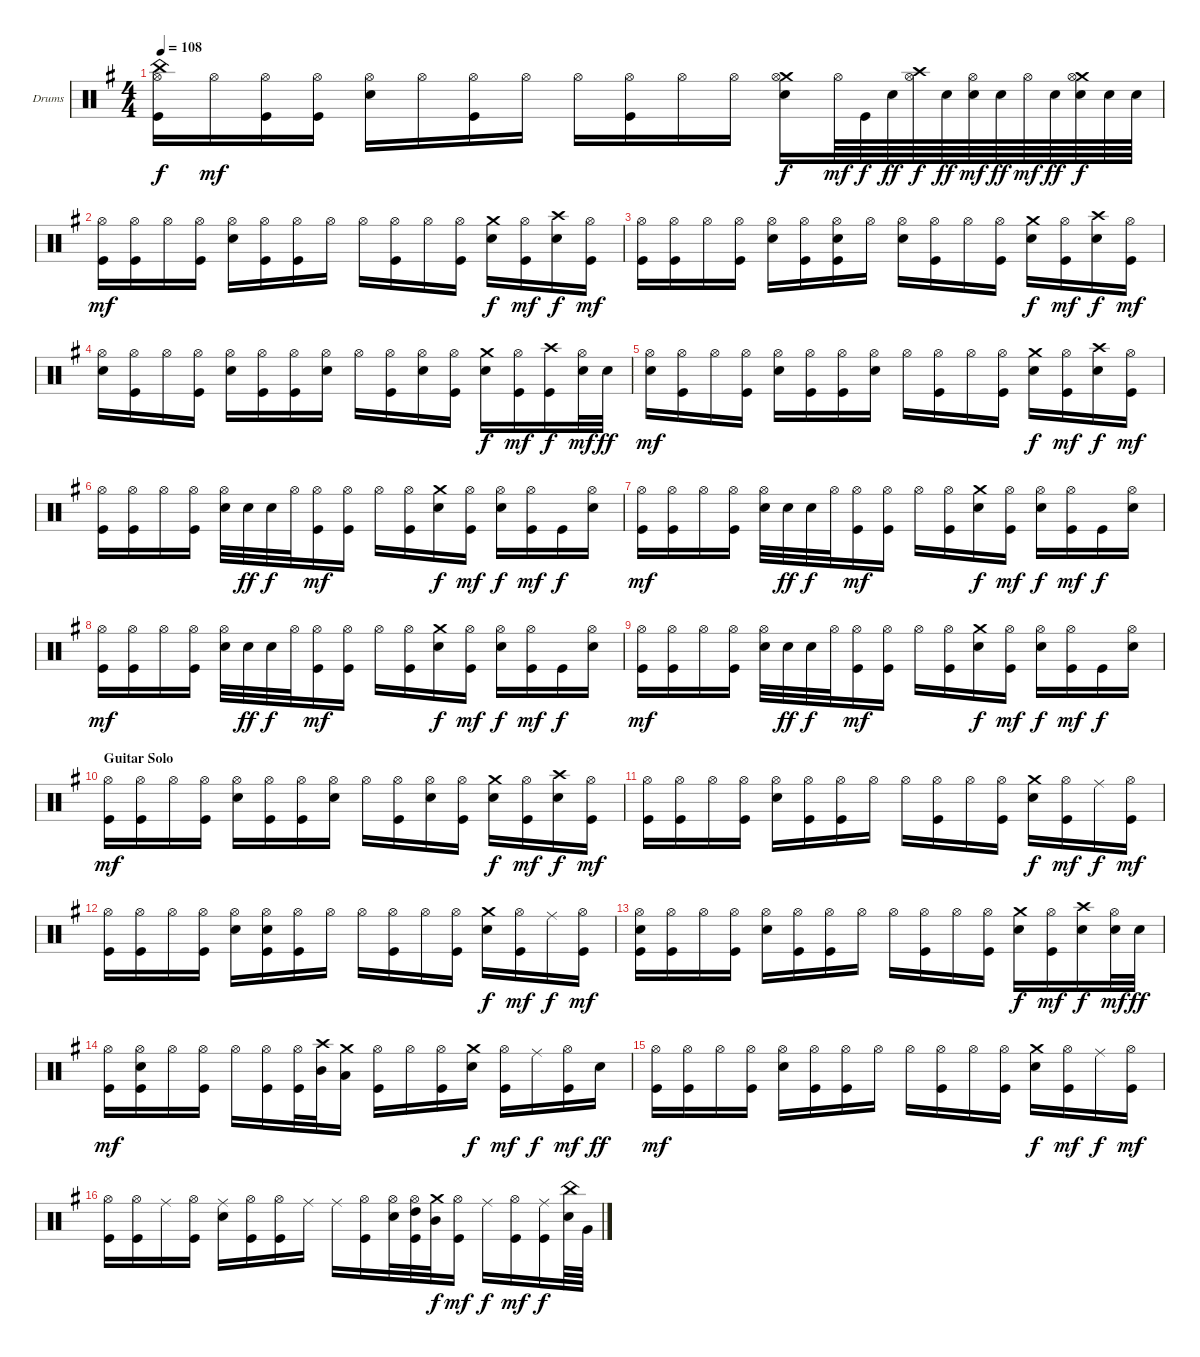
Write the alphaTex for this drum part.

\defaultSystemsLayout 4
\bracketExtendMode groupsimilarinstruments
\firstSystemTrackNameOrientation horizontal
\otherSystemsTrackNameOrientation horizontal
\track ("Drum" "Drums") {instrument percussion}
\staff {score}
\articulation defaults
\ts (4 4)
\tempo 108
\clef neutral
\scale
1.04288
\ks g
("China (hit)" "Hi-Hat (open)" "Kick (hit)").16{dy f} "Hi-Hat (open)".16{dy mf} ("Hi-Hat (open)" "Kick (hit)").16 ("Hi-Hat (open)" "Kick (hit)").16 ("Hi-Hat (open)" "Snare (hit) 2").16 "Hi-Hat (open)".16 ("Hi-Hat (open)" "Kick (hit)").16 "Hi-Hat (open)".16 "Hi-Hat (open)".16 ("Hi-Hat (open)" "Kick (hit)").16 "Hi-Hat (open)".16 "Hi-Hat (open)".16 ("Crash medium (hit)" "Hi-Hat (open)" "Snare (hit) 2").16{dy f} "Hi-Hat (open)".64{dy mf} "Kick (hit)".64{dy f} "Snare (hit) 2".64{dy ff} ("Crash high (hit)" "Hi-Hat (open)").64{dy f} "Snare (hit) 2".64{dy ff} ("Hi-Hat (open)" "Snare (hit) 2").64{dy mf} "Snare (hit) 2".64{dy ff} "Hi-Hat (open)".64{dy mf} "Snare (hit) 2".64{dy ff} ("Crash medium (hit)" "Hi-Hat (open)" "Snare (hit) 2").64{dy f} "Snare (hit) 2".64 "Snare (hit) 2".64 |
\scale
0.957125 ("Hi-Hat (open)" "Kick (hit)").16{dy mf} ("Hi-Hat (open)" "Kick (hit)").16 "Hi-Hat (open)".16 ("Hi-Hat (open)" "Kick (hit)").16 ("Hi-Hat (open)" "Snare (hit) 2").16 ("Hi-Hat (open)" "Kick (hit)").16 ("Hi-Hat (open)" "Kick (hit)").16 "Hi-Hat (open)".16 "Hi-Hat (open)".16 ("Hi-Hat (open)" "Kick (hit)").16 "Hi-Hat (open)".16 ("Hi-Hat (open)" "Kick (hit)").16 ("Crash medium (hit)" "Snare (hit) 2").16{dy f} ("Hi-Hat (open)" "Kick (hit)").16{dy mf} ("Crash high (hit)" "Snare (hit) 2").16{dy f} ("Hi-Hat (open)" "Kick (hit)").16{dy mf} |
\scale
1.04288 ("Hi-Hat (open)" "Kick (hit)").16 ("Hi-Hat (open)" "Kick (hit)").16 "Hi-Hat (open)".16 ("Hi-Hat (open)" "Kick (hit)").16 ("Hi-Hat (open)" "Snare (hit) 2").16 ("Hi-Hat (open)" "Kick (hit)").16 ("Hi-Hat (open)" "Snare (hit) 2" "Kick (hit)").16 "Hi-Hat (open)".16 ("Hi-Hat (open)" "Snare (hit) 2").16 ("Hi-Hat (open)" "Kick (hit)").16 "Hi-Hat (open)".16 ("Hi-Hat (open)" "Kick (hit)").16 ("Crash medium (hit)" "Snare (hit) 2").16{dy f} ("Hi-Hat (open)" "Kick (hit)").16{dy mf} ("Crash high (hit)" "Snare (hit) 2").16{dy f} ("Hi-Hat (open)" "Kick (hit)").16{dy mf} |
\scale
0.957125 ("Hi-Hat (open)" "Snare (hit) 2").16 ("Hi-Hat (open)" "Kick (hit)").16 "Hi-Hat (open)".16 ("Hi-Hat (open)" "Kick (hit)").16 ("Hi-Hat (open)" "Snare (hit) 2").16 ("Hi-Hat (open)" "Kick (hit)").16 ("Hi-Hat (open)" "Kick (hit)").16 ("Hi-Hat (open)" "Snare (hit) 2").16 "Hi-Hat (open)".16 ("Hi-Hat (open)" "Kick (hit)").16 ("Hi-Hat (open)" "Snare (hit) 2").16 ("Hi-Hat (open)" "Kick (hit)").16 ("Crash medium (hit)" "Snare (hit) 2").16{dy f} ("Hi-Hat (open)" "Kick (hit)").16{dy mf} ("Crash high (hit)" "Kick (hit)").16{dy f} ("Hi-Hat (open)" "Snare (hit) 2").32{dy mf} "Snare (hit) 2".32{dy ff} |
\scale
1.04288 ("Hi-Hat (open)" "Snare (hit) 2").16{dy mf} ("Hi-Hat (open)" "Kick (hit)").16 "Hi-Hat (open)".16 ("Hi-Hat (open)" "Kick (hit)").16 ("Hi-Hat (open)" "Snare (hit) 2").16 ("Hi-Hat (open)" "Kick (hit)").16 ("Hi-Hat (open)" "Kick (hit)").16 ("Hi-Hat (open)" "Snare (hit) 2").16 "Hi-Hat (open)".16 ("Hi-Hat (open)" "Kick (hit)").16 "Hi-Hat (open)".16 ("Hi-Hat (open)" "Kick (hit)").16 ("Crash medium (hit)" "Snare (hit) 2").16{dy f} ("Hi-Hat (open)" "Kick (hit)").16{dy mf} ("Crash high (hit)" "Snare (hit) 2").16{dy f} ("Hi-Hat (open)" "Kick (hit)").16{dy mf} |
\scale
0.957125 ("Hi-Hat (open)" "Kick (hit)").16 ("Hi-Hat (open)" "Kick (hit)").16 "Hi-Hat (open)".16 ("Hi-Hat (open)" "Kick (hit)").16 ("Hi-Hat (open)" "Snare (hit) 2").32 "Snare (hit) 2".32{dy ff} "Snare (hit) 2".32{dy f} "Hi-Hat (open)".32 ("Hi-Hat (open)" "Kick (hit)").16{dy mf} ("Hi-Hat (open)" "Kick (hit)").16 "Hi-Hat (open)".16 ("Hi-Hat (open)" "Kick (hit)").16 ("Crash medium (hit)" "Snare (hit) 2").16{dy f} ("Hi-Hat (open)" "Kick (hit)").16{dy mf} ("Hi-Hat (open)" "Snare (hit) 2").16{dy f} ("Hi-Hat (open)" "Kick (hit)").16{dy mf} "Kick (hit)".16{dy f} ("Hi-Hat (open)" "Snare (hit) 2").16 |
\scale
1.04288 ("Hi-Hat (open)" "Kick (hit)").16{dy mf} ("Hi-Hat (open)" "Kick (hit)").16 "Hi-Hat (open)".16 ("Hi-Hat (open)" "Kick (hit)").16 ("Hi-Hat (open)" "Snare (hit) 2").32 "Snare (hit) 2".32{dy ff} "Snare (hit) 2".32{dy f} "Hi-Hat (open)".32 ("Hi-Hat (open)" "Kick (hit)").16{dy mf} ("Hi-Hat (open)" "Kick (hit)").16 "Hi-Hat (open)".16 ("Hi-Hat (open)" "Kick (hit)").16 ("Crash medium (hit)" "Snare (hit) 2").16{dy f} ("Hi-Hat (open)" "Kick (hit)").16{dy mf} ("Hi-Hat (open)" "Snare (hit) 2").16{dy f} ("Hi-Hat (open)" "Kick (hit)").16{dy mf} "Kick (hit)".16{dy f} ("Hi-Hat (open)" "Snare (hit) 2").16 |
\scale
0.957125 ("Hi-Hat (open)" "Kick (hit)").16{dy mf} ("Hi-Hat (open)" "Kick (hit)").16 "Hi-Hat (open)".16 ("Hi-Hat (open)" "Kick (hit)").16 ("Hi-Hat (open)" "Snare (hit) 2").32 "Snare (hit) 2".32{dy ff} "Snare (hit) 2".32{dy f} "Hi-Hat (open)".32 ("Hi-Hat (open)" "Kick (hit)").16{dy mf} ("Hi-Hat (open)" "Kick (hit)").16 "Hi-Hat (open)".16 ("Hi-Hat (open)" "Kick (hit)").16 ("Crash medium (hit)" "Snare (hit) 2").16{dy f} ("Hi-Hat (open)" "Kick (hit)").16{dy mf} ("Hi-Hat (open)" "Snare (hit) 2").16{dy f} ("Hi-Hat (open)" "Kick (hit)").16{dy mf} "Kick (hit)".16{dy f} ("Hi-Hat (open)" "Snare (hit) 2").16 |
\scale
1.04288 ("Hi-Hat (open)" "Kick (hit)").16{dy mf} ("Hi-Hat (open)" "Kick (hit)").16 "Hi-Hat (open)".16 ("Hi-Hat (open)" "Kick (hit)").16 ("Hi-Hat (open)" "Snare (hit) 2").32 "Snare (hit) 2".32{dy ff} "Snare (hit) 2".32{dy f} "Hi-Hat (open)".32 ("Hi-Hat (open)" "Kick (hit)").16{dy mf} ("Hi-Hat (open)" "Kick (hit)").16 "Hi-Hat (open)".16 ("Hi-Hat (open)" "Kick (hit)").16 ("Crash medium (hit)" "Snare (hit) 2").16{dy f} ("Hi-Hat (open)" "Kick (hit)").16{dy mf} ("Hi-Hat (open)" "Snare (hit) 2").16{dy f} ("Hi-Hat (open)" "Kick (hit)").16{dy mf} "Kick (hit)".16{dy f} ("Hi-Hat (open)" "Snare (hit) 2").16 |
\section ("" "Guitar Solo")
\scale
0.957125 ("Hi-Hat (open)" "Kick (hit)").16{dy mf} ("Hi-Hat (open)" "Kick (hit)").16 "Hi-Hat (open)".16 ("Hi-Hat (open)" "Kick (hit)").16 ("Hi-Hat (open)" "Snare (hit) 2").16 ("Hi-Hat (open)" "Kick (hit)").16 ("Hi-Hat (open)" "Kick (hit)").16 ("Hi-Hat (open)" "Snare (hit) 2").16 "Hi-Hat (open)".16 ("Hi-Hat (open)" "Kick (hit)").16 ("Hi-Hat (open)" "Snare (hit) 2").16 ("Hi-Hat (open)" "Kick (hit)").16 ("Crash medium (hit)" "Snare (hit) 2").16{dy f} ("Hi-Hat (open)" "Kick (hit)").16{dy mf} ("Crash high (hit)" "Snare (hit) 2").16{dy f} ("Hi-Hat (open)" "Kick (hit)").16{dy mf} |
\scale
1.04288 ("Hi-Hat (open)" "Kick (hit)").16 ("Hi-Hat (open)" "Kick (hit)").16 "Hi-Hat (open)".16 ("Hi-Hat (open)" "Kick (hit)").16 ("Hi-Hat (open)" "Snare (hit) 2").16 ("Hi-Hat (open)" "Kick (hit)").16 ("Hi-Hat (open)" "Kick (hit)").16 "Hi-Hat (open)".16 "Hi-Hat (open)".16 ("Hi-Hat (open)" "Kick (hit)").16 "Hi-Hat (open)".16 ("Hi-Hat (open)" "Kick (hit)").16 ("Crash medium (hit)" "Snare (hit) 2").16{dy f} ("Hi-Hat (open)" "Kick (hit)").16{dy mf} "Ride (middle)".16{dy f} ("Hi-Hat (open)" "Kick (hit)").16{dy mf} |
\scale
0.957125 ("Hi-Hat (open)" "Kick (hit)").16 ("Hi-Hat (open)" "Kick (hit)").16 "Hi-Hat (open)".16 ("Hi-Hat (open)" "Kick (hit)").16 ("Hi-Hat (open)" "Snare (hit) 2").16 ("Hi-Hat (open)" "Snare (hit) 2" "Kick (hit)").16 ("Hi-Hat (open)" "Kick (hit)").16 "Hi-Hat (open)".16 "Hi-Hat (open)".16 ("Hi-Hat (open)" "Kick (hit)").16 "Hi-Hat (open)".16 ("Hi-Hat (open)" "Kick (hit)").16 ("Crash medium (hit)" "Snare (hit) 2").16{dy f} ("Hi-Hat (open)" "Kick (hit)").16{dy mf} "Ride (middle)".16{dy f} ("Hi-Hat (open)" "Kick (hit)").16{dy mf} |
\scale
1.04288 ("Hi-Hat (open)" "Snare (hit) 2" "Kick (hit)").16 ("Hi-Hat (open)" "Kick (hit)").16 "Hi-Hat (open)".16 ("Hi-Hat (open)" "Kick (hit)").16 ("Hi-Hat (open)" "Snare (hit) 2").16 ("Hi-Hat (open)" "Kick (hit)").16 ("Hi-Hat (open)" "Kick (hit)").16 "Hi-Hat (open)".16 "Hi-Hat (open)".16 ("Hi-Hat (open)" "Kick (hit)").16 "Hi-Hat (open)".16 ("Hi-Hat (open)" "Kick (hit)").16 ("Crash medium (hit)" "Snare (hit) 2").16{dy f} ("Hi-Hat (open)" "Kick (hit)").16{dy mf} ("Crash high (hit)" "Snare (hit) 2").16{dy f} ("Hi-Hat (open)" "Snare (hit) 2").32{dy mf} "Snare (hit) 2".32{dy ff} |
\scale
0.957125 ("Hi-Hat (open)" "Kick (hit)").16{dy mf} ("Hi-Hat (open)" "Snare (hit) 2" "Kick (hit)").16 "Hi-Hat (open)".16 ("Hi-Hat (open)" "Kick (hit)").16 "Hi-Hat (open)".16 ("Hi-Hat (open)" "Kick (hit)").16 ("Hi-Hat (open)" "Kick (hit)").32 ("Crash high (hit)" "Mid Tom (hit)").32 ("Crash medium (hit)" "Low Tom (hit)").16 ("Hi-Hat (open)" "Kick (hit)").16 "Hi-Hat (open)".16 ("Hi-Hat (open)" "Kick (hit)").16 ("Crash medium (hit)" "Snare (hit) 2").16{dy f} ("Hi-Hat (open)" "Kick (hit)").16{dy mf} "Ride (middle)".16{dy f} ("Hi-Hat (open)" "Kick (hit)").16{dy mf} "Snare (hit) 2".16{dy ff} |
\scale
1.04288 ("Hi-Hat (open)" "Kick (hit)").16{dy mf} ("Hi-Hat (open)" "Kick (hit)").16 "Hi-Hat (open)".16 ("Hi-Hat (open)" "Kick (hit)").16 ("Hi-Hat (open)" "Snare (hit) 2").16 ("Hi-Hat (open)" "Kick (hit)").16 ("Hi-Hat (open)" "Kick (hit)").16 "Hi-Hat (open)".16 "Hi-Hat (open)".16 ("Hi-Hat (open)" "Kick (hit)").16 "Hi-Hat (open)".16 ("Hi-Hat (open)" "Kick (hit)").16 ("Crash medium (hit)" "Snare (hit) 2").16{dy f} ("Hi-Hat (open)" "Kick (hit)").16{dy mf} "Ride (middle)".16{dy f} ("Hi-Hat (open)" "Kick (hit)").16{dy mf} |
\scale
0.957125 ("Hi-Hat (open)" "Kick (hit)").16 ("Hi-Hat (open)" "Kick (hit)").16 "Ride (middle)".16 ("Hi-Hat (open)" "Kick (hit)").16 ("Ride (middle)" "Snare (hit) 2").16 ("Hi-Hat (open)" "Kick (hit)").16 ("Hi-Hat (open)" "Kick (hit)").16 "Ride (middle)".16 "Ride (middle)".16 ("Hi-Hat (open)" "Kick (hit)").16 ("Hi-Hat (open)" "Snare (hit) 2").32 ("Hi-Hat (open)" "High Tom (hit)" "Kick (hit)").32 ("Crash medium (hit)" "Mid Tom (hit)").32{dy f} ("Hi-Hat (open)" "Kick (hit)").16{dy mf} "Ride (middle)".16{dy f} ("Hi-Hat (open)" "Kick (hit)").16{dy mf} ("Ride (middle)" "Kick (hit)").16{dy f} ("China (hit)" "Snare (hit) 2").64 "Very Low Tom (hit)".64
